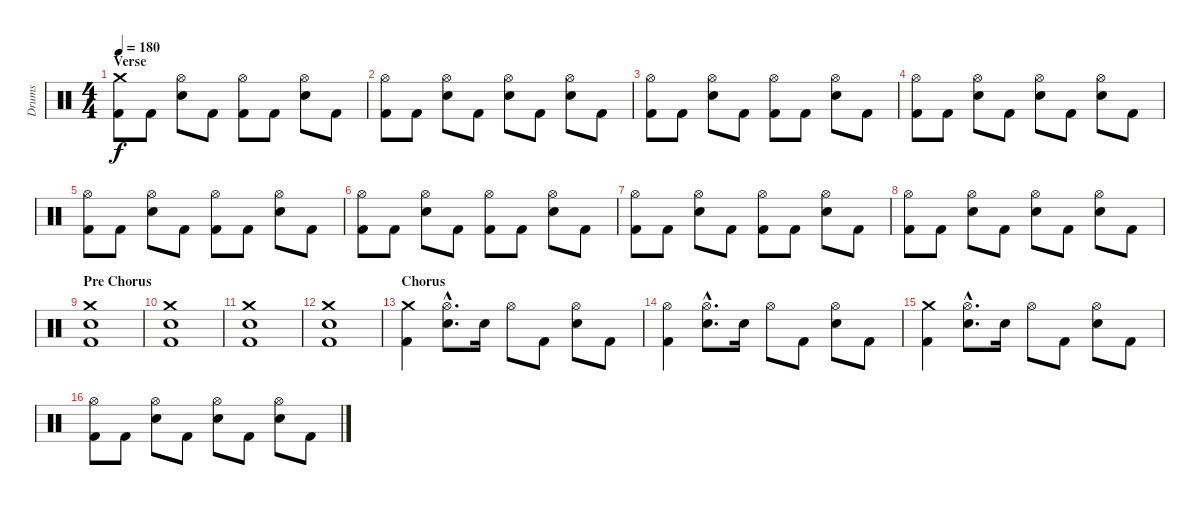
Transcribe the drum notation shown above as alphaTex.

\track ("Drums" "Drums") {instrument percussion}
\staff {score}
\articulation defaults
\ts (4 4)
\section ("" "Verse")
\tempo 180
\clef neutral
\ks c
("Crash medium (hit)" "Kick (hit) 2").8{dy f} "Kick (hit) 2".8 ("Hi-Hat (open)" "Electric Snare (hit)").8 "Kick (hit) 2".8 ("Hi-Hat (open)" "Kick (hit) 2").8 "Kick (hit) 2".8 ("Hi-Hat (open)" "Electric Snare (hit)").8 "Kick (hit) 2".8 |
("Hi-Hat (open)" "Kick (hit) 2").8 "Kick (hit) 2".8 ("Hi-Hat (open)" "Electric Snare (hit)").8 "Kick (hit) 2".8 ("Hi-Hat (open)" "Electric Snare (hit)").8 "Kick (hit) 2".8 ("Hi-Hat (open)" "Electric Snare (hit)").8 "Kick (hit) 2".8 |
("Hi-Hat (open)" "Kick (hit) 2").8 "Kick (hit) 2".8 ("Hi-Hat (open)" "Electric Snare (hit)").8 "Kick (hit) 2".8 ("Hi-Hat (open)" "Kick (hit) 2").8 "Kick (hit) 2".8 ("Hi-Hat (open)" "Electric Snare (hit)").8 "Kick (hit) 2".8 |
("Hi-Hat (open)" "Kick (hit) 2").8 "Kick (hit) 2".8 ("Hi-Hat (open)" "Electric Snare (hit)").8 "Kick (hit) 2".8 ("Hi-Hat (open)" "Electric Snare (hit)").8 "Kick (hit) 2".8 ("Hi-Hat (open)" "Electric Snare (hit)").8 "Kick (hit) 2".8 |
("Hi-Hat (open)" "Kick (hit) 2").8 "Kick (hit) 2".8 ("Hi-Hat (open)" "Electric Snare (hit)").8 "Kick (hit) 2".8 ("Hi-Hat (open)" "Kick (hit) 2").8 "Kick (hit) 2".8 ("Hi-Hat (open)" "Electric Snare (hit)").8 "Kick (hit) 2".8 |
("Hi-Hat (open)" "Kick (hit) 2").8 "Kick (hit) 2".8 ("Hi-Hat (open)" "Electric Snare (hit)").8 "Kick (hit) 2".8 ("Hi-Hat (open)" "Kick (hit) 2").8 "Kick (hit) 2".8 ("Hi-Hat (open)" "Electric Snare (hit)").8 "Kick (hit) 2".8 |
("Hi-Hat (open)" "Kick (hit) 2").8 "Kick (hit) 2".8 ("Hi-Hat (open)" "Electric Snare (hit)").8 "Kick (hit) 2".8 ("Hi-Hat (open)" "Kick (hit) 2").8 "Kick (hit) 2".8 ("Hi-Hat (open)" "Electric Snare (hit)").8 "Kick (hit) 2".8 |
("Hi-Hat (open)" "Kick (hit) 2").8 "Kick (hit) 2".8 ("Hi-Hat (open)" "Electric Snare (hit)").8 "Kick (hit) 2".8 ("Hi-Hat (open)" "Electric Snare (hit)").8 "Kick (hit) 2".8 ("Hi-Hat (open)" "Electric Snare (hit)").8 "Kick (hit) 2".8 |
\section ("" "Pre Chorus")
("Crash medium (hit)" "Electric Snare (hit)" "Kick (hit) 2").1 |
("Crash medium (hit)" "Electric Snare (hit)" "Kick (hit) 2").1 |
("Crash medium (hit)" "Electric Snare (hit)" "Kick (hit) 2").1 |
("Crash medium (hit)" "Electric Snare (hit)" "Kick (hit) 2").1 |
\section ("" "Chorus")
("Crash medium (hit)" "Kick (hit) 2").4 ("Hi-Hat (open)"{hac} "Electric Snare (hit)"{hac}).8{d} "Electric Snare (hit)".16 "Hi-Hat (open)".8 "Kick (hit) 2".8 ("Hi-Hat (open)" "Electric Snare (hit)").8 "Kick (hit) 2".8 |
("Hi-Hat (open)" "Kick (hit) 2").4 ("Hi-Hat (open)"{hac} "Electric Snare (hit)"{hac}).8{d} "Electric Snare (hit)".16 "Hi-Hat (open)".8 "Kick (hit) 2".8 ("Hi-Hat (open)" "Electric Snare (hit)").8 "Kick (hit) 2".8 |
("Crash medium (hit)" "Kick (hit) 2").4 ("Hi-Hat (open)"{hac} "Electric Snare (hit)"{hac}).8{d} "Electric Snare (hit)".16 "Hi-Hat (open)".8 "Kick (hit) 2".8 ("Hi-Hat (open)" "Electric Snare (hit)").8 "Kick (hit) 2".8 |
("Hi-Hat (open)" "Kick (hit) 2").8 "Kick (hit) 2".8 ("Hi-Hat (open)" "Electric Snare (hit)").8 "Kick (hit) 2".8 ("Hi-Hat (open)" "Electric Snare (hit)").8 "Kick (hit) 2".8 ("Hi-Hat (open)" "Electric Snare (hit)").8 "Kick (hit) 2".8
